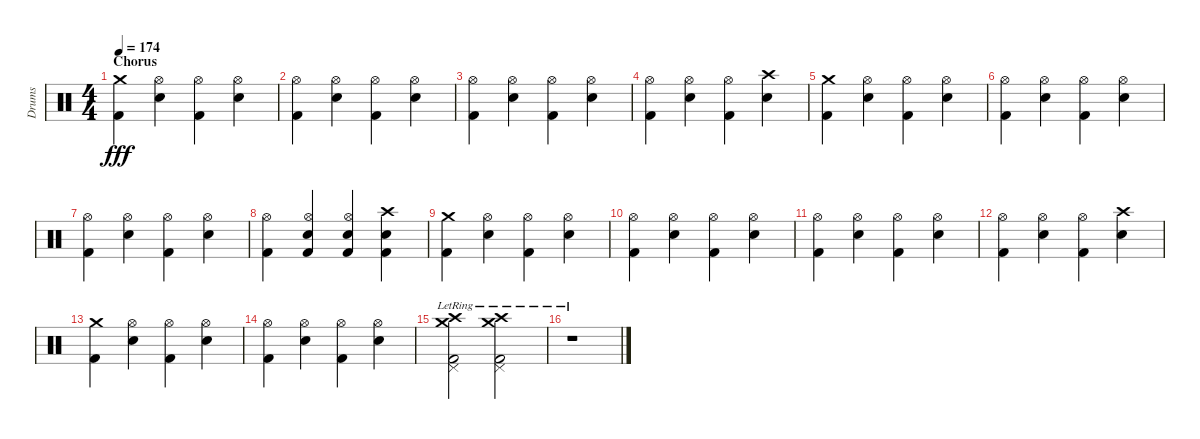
\track ("Drums" "Drums") {instrument percussion}
\staff {score}
\articulation defaults
\ts (4 4)
\section ("" "Chorus")
\tempo 174
\clef neutral
\ks c
("Crash medium (hit)" "Kick (hit) 2").4{dy fff} ("Hi-Hat (open)" "Electric Snare (hit)").4 ("Hi-Hat (open)" "Kick (hit) 2").4 ("Hi-Hat (open)" "Electric Snare (hit)").4 |
("Hi-Hat (open)" "Kick (hit) 2").4 ("Hi-Hat (open)" "Electric Snare (hit)").4 ("Hi-Hat (open)" "Kick (hit) 2").4 ("Hi-Hat (open)" "Electric Snare (hit)").4 |
("Hi-Hat (open)" "Kick (hit) 2").4 ("Hi-Hat (open)" "Electric Snare (hit)").4 ("Hi-Hat (open)" "Kick (hit) 2").4 ("Hi-Hat (open)" "Electric Snare (hit)").4 |
("Hi-Hat (open)" "Kick (hit) 2").4 ("Hi-Hat (open)" "Electric Snare (hit)").4 ("Hi-Hat (open)" "Kick (hit) 2").4 ("Crash high (hit)" "Electric Snare (hit)").4 |
("Crash medium (hit)" "Kick (hit) 2").4 ("Hi-Hat (open)" "Electric Snare (hit)").4 ("Hi-Hat (open)" "Kick (hit) 2").4 ("Hi-Hat (open)" "Electric Snare (hit)").4 |
("Hi-Hat (open)" "Kick (hit) 2").4 ("Hi-Hat (open)" "Electric Snare (hit)").4 ("Hi-Hat (open)" "Kick (hit) 2").4 ("Hi-Hat (open)" "Electric Snare (hit)").4 |
("Hi-Hat (open)" "Kick (hit) 2").4 ("Hi-Hat (open)" "Electric Snare (hit)").4 ("Hi-Hat (open)" "Kick (hit) 2").4 ("Hi-Hat (open)" "Electric Snare (hit)").4 |
("Hi-Hat (open)" "Kick (hit) 2").4 ("Hi-Hat (open)" "Electric Snare (hit)" "Kick (hit) 2").4 ("Hi-Hat (open)" "Electric Snare (hit)" "Kick (hit) 2").4 ("Crash high (hit)" "Electric Snare (hit)" "Kick (hit) 2").4 |
("Crash medium (hit)" "Kick (hit) 2").4 ("Hi-Hat (open)" "Electric Snare (hit)").4 ("Hi-Hat (open)" "Kick (hit) 2").4 ("Hi-Hat (open)" "Electric Snare (hit)").4 |
("Hi-Hat (open)" "Kick (hit) 2").4 ("Hi-Hat (open)" "Electric Snare (hit)").4 ("Hi-Hat (open)" "Kick (hit) 2").4 ("Hi-Hat (open)" "Electric Snare (hit)").4 |
("Hi-Hat (open)" "Kick (hit) 2").4 ("Hi-Hat (open)" "Electric Snare (hit)").4 ("Hi-Hat (open)" "Kick (hit) 2").4 ("Hi-Hat (open)" "Electric Snare (hit)").4 |
("Hi-Hat (open)" "Kick (hit) 2").4 ("Hi-Hat (open)" "Electric Snare (hit)").4 ("Hi-Hat (open)" "Kick (hit) 2").4 ("Crash high (hit)" "Electric Snare (hit)").4 |
("Crash medium (hit)" "Kick (hit) 2").4 ("Hi-Hat (open)" "Electric Snare (hit)").4 ("Hi-Hat (open)" "Kick (hit) 2").4 ("Hi-Hat (open)" "Electric Snare (hit)").4 |
("Hi-Hat (open)" "Kick (hit) 2").4 ("Hi-Hat (open)" "Electric Snare (hit)").4 ("Hi-Hat (open)" "Kick (hit) 2").4 ("Hi-Hat (open)" "Electric Snare (hit)").4 |
("Crash high (hit)"{lr} "Crash medium (hit)"{lr} "Pedal Hi-Hat (hit)"{lr} "Kick (hit) 2"{lr}).2 ("Crash high (hit)"{lr} "Crash medium (hit)"{lr} "Pedal Hi-Hat (hit)"{lr} "Kick (hit) 2"{lr}).2 |
r.1
